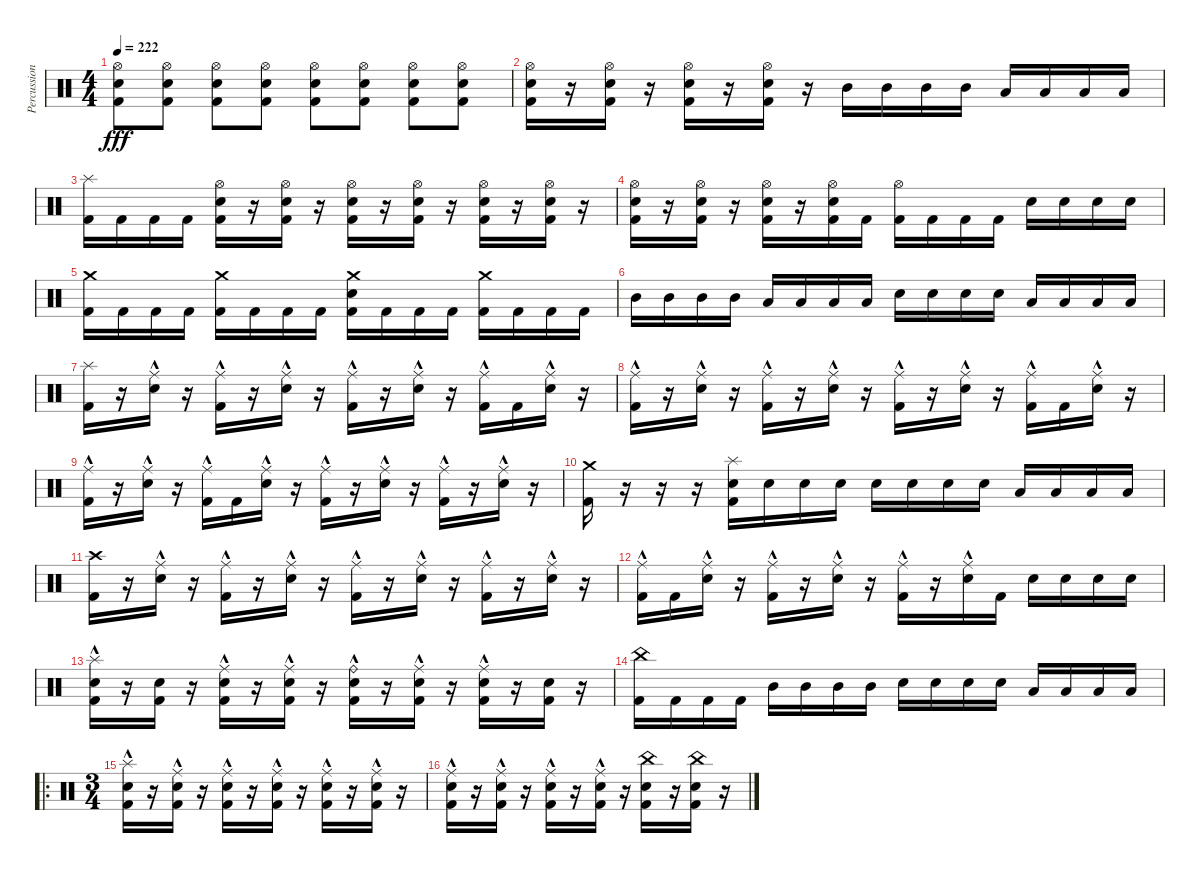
\track ("Percussion" "Percussion") {instrument percussion}
\staff {score}
\articulation defaults
\ts (4 4)
\tempo 222
\clef neutral
\ks c
("Hi-Hat (open)" "Electric Snare (hit)" "Kick (hit) 2").8{dy fff} ("Hi-Hat (open)" "Electric Snare (hit)" "Kick (hit) 2").8 ("Hi-Hat (open)" "Electric Snare (hit)" "Kick (hit) 2").8 ("Hi-Hat (open)" "Electric Snare (hit)" "Kick (hit) 2").8 ("Hi-Hat (open)" "Electric Snare (hit)" "Kick (hit) 2").8 ("Hi-Hat (open)" "Electric Snare (hit)" "Kick (hit) 2").8 ("Hi-Hat (open)" "Electric Snare (hit)" "Kick (hit) 2").8 ("Hi-Hat (open)" "Electric Snare (hit)" "Kick (hit) 2").8 |
("Hi-Hat (open)" "Electric Snare (hit)" "Kick (hit) 2").16 r.16 ("Hi-Hat (open)" "Electric Snare (hit)" "Kick (hit) 2").16 r.16 ("Hi-Hat (open)" "Electric Snare (hit)" "Kick (hit) 2").16 r.16 ("Hi-Hat (open)" "Electric Snare (hit)" "Kick (hit) 2").16 r.16 "Mid Tom (hit)".16 "Mid Tom (hit)".16 "Mid Tom (hit)".16 "Mid Tom (hit)".16 "Low Tom (hit)".16 "Low Tom (hit)".16 "Low Tom (hit)".16 "Low Tom (hit)".16 |
("Splash (hit)" "Kick (hit) 2").16 "Kick (hit) 2".16 "Kick (hit) 2".16 "Kick (hit) 2".16 ("Hi-Hat (open)" "Electric Snare (hit)" "Kick (hit) 2").16 r.16 ("Hi-Hat (open)" "Electric Snare (hit)" "Kick (hit) 2").16 r.16 ("Hi-Hat (open)" "Electric Snare (hit)" "Kick (hit) 2").16 r.16 ("Hi-Hat (open)" "Electric Snare (hit)" "Kick (hit) 2").16 r.16 ("Hi-Hat (open)" "Electric Snare (hit)" "Kick (hit) 2").16 r.16 ("Hi-Hat (open)" "Electric Snare (hit)" "Kick (hit) 2").16 r.16 |
("Hi-Hat (open)" "Electric Snare (hit)" "Kick (hit) 2").16 r.16 ("Hi-Hat (open)" "Electric Snare (hit)" "Kick (hit) 2").16 r.16 ("Hi-Hat (open)" "Electric Snare (hit)" "Kick (hit) 2").16 r.16 ("Hi-Hat (open)" "Electric Snare (hit)" "Kick (hit) 2").16 "Kick (hit) 2".16 ("Hi-Hat (open)" "Kick (hit) 2").16 "Kick (hit) 2".16 "Kick (hit) 2".16 "Kick (hit) 2".16 "Electric Snare (hit)".16 "Electric Snare (hit)".16 "Electric Snare (hit)".16 "Electric Snare (hit)".16 |
("Crash medium (hit)" "Kick (hit) 2").16 "Kick (hit) 2".16 "Kick (hit) 2".16 "Kick (hit) 2".16 ("Crash medium (hit)" "Kick (hit) 2").16 "Kick (hit) 2".16 "Kick (hit) 2".16 "Kick (hit) 2".16 ("Crash medium (hit)" "Electric Snare (hit)" "Kick (hit) 2").16 "Kick (hit) 2".16 "Kick (hit) 2".16 "Kick (hit) 2".16 ("Crash medium (hit)" "Kick (hit) 2").16 "Kick (hit) 2".16 "Kick (hit) 2".16 "Kick (hit) 2".16 |
"Mid Tom (hit)".16 "Mid Tom (hit)".16 "Mid Tom (hit)".16 "Mid Tom (hit)".16 "Low Tom (hit)".16 "Low Tom (hit)".16 "Low Tom (hit)".16 "Low Tom (hit)".16 "Electric Snare (hit)".16 "Electric Snare (hit)".16 "Electric Snare (hit)".16 "Electric Snare (hit)".16 "Low Tom (hit)".16 "Low Tom (hit)".16 "Low Tom (hit)".16 "Low Tom (hit)".16 |
("Kick (hit) 2" "Splash (hit)").16 r.16 ("Electric Snare (hit)" "Ride (middle)"{hac}).16 r.16 ("Kick (hit) 2" "Ride (middle)"{hac}).16 r.16 ("Electric Snare (hit)" "Ride (middle)"{hac}).16 r.16 ("Kick (hit) 2" "Ride (middle)"{hac}).16 r.16 ("Electric Snare (hit)" "Ride (middle)"{hac}).16 r.16 ("Kick (hit) 2" "Ride (middle)"{hac}).16 "Kick (hit) 2".16 ("Electric Snare (hit)" "Ride (middle)"{hac}).16 r.16 |
("Kick (hit) 2" "Ride (middle)"{hac}).16 r.16 ("Electric Snare (hit)" "Ride (middle)"{hac}).16 r.16 ("Kick (hit) 2" "Ride (middle)"{hac}).16 r.16 ("Electric Snare (hit)" "Ride (middle)"{hac}).16 r.16 ("Kick (hit) 2" "Ride (middle)"{hac}).16 r.16 ("Electric Snare (hit)" "Ride (middle)"{hac}).16 r.16 ("Kick (hit) 2" "Ride (middle)"{hac}).16 "Kick (hit) 2".16 ("Electric Snare (hit)" "Ride (middle)"{hac}).16 r.16 |
("Kick (hit) 2" "Ride (middle)"{hac}).16 r.16 ("Electric Snare (hit)" "Ride (middle)"{hac}).16 r.16 ("Kick (hit) 2" "Ride (middle)"{hac}).16 "Kick (hit) 2".16 ("Electric Snare (hit)" "Ride (middle)"{hac}).16 r.16 ("Kick (hit) 2" "Ride (middle)"{hac}).16 r.16 ("Electric Snare (hit)" "Ride (middle)"{hac}).16 r.16 ("Kick (hit) 2" "Ride (middle)"{hac}).16 r.16 ("Electric Snare (hit)" "Ride (middle)"{hac}).16 r.16 |
("Kick (hit) 2" "Crash medium (hit)").16 r.16 r.16 r.16 ("Kick (hit) 2" "Electric Snare (hit)" "Splash (hit)").16 "Electric Snare (hit)".16 "Electric Snare (hit)".16 "Electric Snare (hit)".16 "Electric Snare (hit)".16 "Electric Snare (hit)".16 "Electric Snare (hit)".16 "Electric Snare (hit)".16 "Low Tom (hit)".16 "Low Tom (hit)".16 "Low Tom (hit)".16 "Low Tom (hit)".16 |
("Kick (hit) 2" "Crash high (hit)").16 r.16 ("Electric Snare (hit)" "Ride (middle)"{hac}).16 r.16 ("Kick (hit) 2" "Ride (middle)"{hac}).16 r.16 ("Electric Snare (hit)" "Ride (middle)"{hac}).16 r.16 ("Kick (hit) 2" "Ride (middle)"{hac}).16 r.16 ("Electric Snare (hit)" "Ride (middle)"{hac}).16 r.16 ("Kick (hit) 2" "Ride (middle)"{hac}).16 r.16 ("Electric Snare (hit)" "Ride (middle)"{hac}).16 r.16 |
("Kick (hit) 2" "Ride (middle)"{hac}).16 "Kick (hit) 2".16 ("Electric Snare (hit)" "Ride (middle)"{hac}).16 r.16 ("Kick (hit) 2" "Ride (middle)"{hac}).16 r.16 ("Electric Snare (hit)" "Ride (middle)"{hac}).16 r.16 ("Kick (hit) 2" "Ride (middle)"{hac}).16 r.16 ("Electric Snare (hit)" "Ride (middle)"{hac}).16 "Kick (hit) 2".16 "Electric Snare (hit)".16 "Electric Snare (hit)".16 "Electric Snare (hit)".16 "Electric Snare (hit)".16 |
("Kick (hit) 2" "Electric Snare (hit)" "Splash (hit)"{hac}).16 r.16 ("Kick (hit) 2" "Electric Snare (hit)").16 r.16 ("Kick (hit) 2" "Electric Snare (hit)" "Ride (middle)"{hac}).16 r.16 ("Kick (hit) 2" "Electric Snare (hit)" "Ride (middle)"{hac}).16 r.16 ("Kick (hit) 2" "Electric Snare (hit)" "Ride (bell)"{hac}).16 r.16 ("Kick (hit) 2" "Electric Snare (hit)" "Ride (middle)"{hac}).16 r.16 ("Kick (hit) 2" "Electric Snare (hit)" "Ride (middle)"{hac}).16 r.16 ("Kick (hit) 2" "Electric Snare (hit)").16 r.16 |
("Kick (hit) 2" "China (hit)").16 "Kick (hit) 2".16 "Kick (hit) 2".16 "Kick (hit) 2".16 "Mid Tom (hit)".16 "Mid Tom (hit)".16 "Mid Tom (hit)".16 "Mid Tom (hit)".16 "Electric Snare (hit)".16 "Electric Snare (hit)".16 "Electric Snare (hit)".16 "Electric Snare (hit)".16 "Low Tom (hit)".16 "Low Tom (hit)".16 "Low Tom (hit)".16 "Low Tom (hit)".16 |
\ro
\ts (3 4)
("Kick (hit) 2" "Electric Snare (hit)" "Splash (hit)"{hac}).16 r.16 ("Kick (hit) 2" "Electric Snare (hit)" "Ride (middle)"{hac}).16 r.16 ("Kick (hit) 2" "Electric Snare (hit)" "Ride (middle)"{hac}).16 r.16 ("Kick (hit) 2" "Electric Snare (hit)" "Ride (middle)"{hac}).16 r.16 ("Kick (hit) 2" "Electric Snare (hit)" "Ride (middle)"{hac}).16 r.16 ("Kick (hit) 2" "Electric Snare (hit)" "Ride (middle)"{hac}).16 r.16 |
("Kick (hit) 2" "Electric Snare (hit)" "Ride (middle)"{hac}).16 r.16 ("Kick (hit) 2" "Electric Snare (hit)" "Ride (middle)"{hac}).16 r.16 ("Kick (hit) 2" "Electric Snare (hit)" "Ride (middle)"{hac}).16 r.16 ("Kick (hit) 2" "Electric Snare (hit)" "Ride (middle)"{hac}).16 r.16 ("Kick (hit) 2" "Electric Snare (hit)" "China (hit)").16 r.16 ("Kick (hit) 2" "Electric Snare (hit)" "China (hit)").16 r.16
